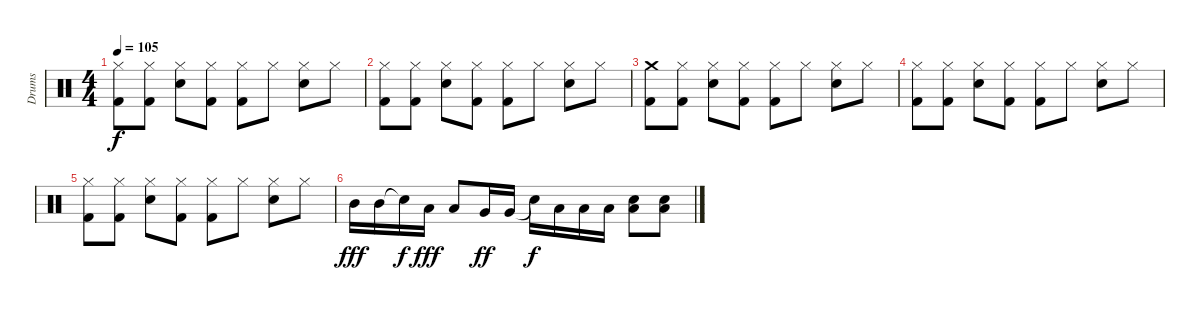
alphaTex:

\track ("Drums" "Drums") {instrument percussion}
\staff {score}
\articulation defaults
\ts (4 4)
\tempo 105
\clef neutral
\ks c
("Kick (hit) 2" "Hi-Hat (closed)").8{dy f} ("Kick (hit) 2" "Hi-Hat (closed)").8 ("Snare (hit) 2" "Hi-Hat (closed)").8 ("Kick (hit) 2" "Hi-Hat (closed)").8 ("Kick (hit) 2" "Hi-Hat (closed)").8 "Hi-Hat (closed)".8 ("Snare (hit) 2" "Hi-Hat (closed)").8 "Hi-Hat (closed)".8 |
("Kick (hit) 2" "Hi-Hat (closed)").8 ("Kick (hit) 2" "Hi-Hat (closed)").8 ("Snare (hit) 2" "Hi-Hat (closed)").8 ("Kick (hit) 2" "Hi-Hat (closed)").8 ("Kick (hit) 2" "Hi-Hat (closed)").8 "Hi-Hat (closed)".8 ("Snare (hit) 2" "Hi-Hat (closed)").8 "Hi-Hat (closed)".8 |
("Kick (hit) 2" "Crash medium (hit)").8 ("Kick (hit) 2" "Hi-Hat (closed)").8 ("Snare (hit) 2" "Hi-Hat (closed)").8 ("Kick (hit) 2" "Hi-Hat (closed)").8 ("Kick (hit) 2" "Hi-Hat (closed)").8 "Hi-Hat (closed)".8 ("Snare (hit) 2" "Hi-Hat (closed)").8 "Hi-Hat (closed)".8 |
("Kick (hit) 2" "Hi-Hat (closed)").8 ("Kick (hit) 2" "Hi-Hat (closed)").8 ("Snare (hit) 2" "Hi-Hat (closed)").8 ("Kick (hit) 2" "Hi-Hat (closed)").8 ("Kick (hit) 2" "Hi-Hat (closed)").8 "Hi-Hat (closed)".8 ("Snare (hit) 2" "Hi-Hat (closed)").8 "Hi-Hat (closed)".8 |
("Kick (hit) 2" "Hi-Hat (closed)").8 ("Kick (hit) 2" "Hi-Hat (closed)").8 ("Snare (hit) 2" "Hi-Hat (closed)").8 ("Kick (hit) 2" "Hi-Hat (closed)").8 ("Kick (hit) 2" "Hi-Hat (closed)").8 "Hi-Hat (closed)".8 ("Snare (hit) 2" "Hi-Hat (closed)").8 "Hi-Hat (closed)".8 |
"Mid Tom (hit)".16{dy fff} "Mid Tom (hit)".16 "Snare (hit)"{t}.16{dy f} "Low Tom (hit)".16{dy fff} "Low Tom (hit)".8 "Very Low Tom (hit)".16{dy ff} "Very Low Tom (hit)".16 "Snare (hit)"{t}.16{dy f} "Low Floor Tom (hit)".16 "Low Floor Tom (hit)".16 "Low Floor Tom (hit)".16 ("Snare (hit) 2" "Low Floor Tom (hit)").8 ("Snare (hit) 2" "Low Floor Tom (hit)").8
